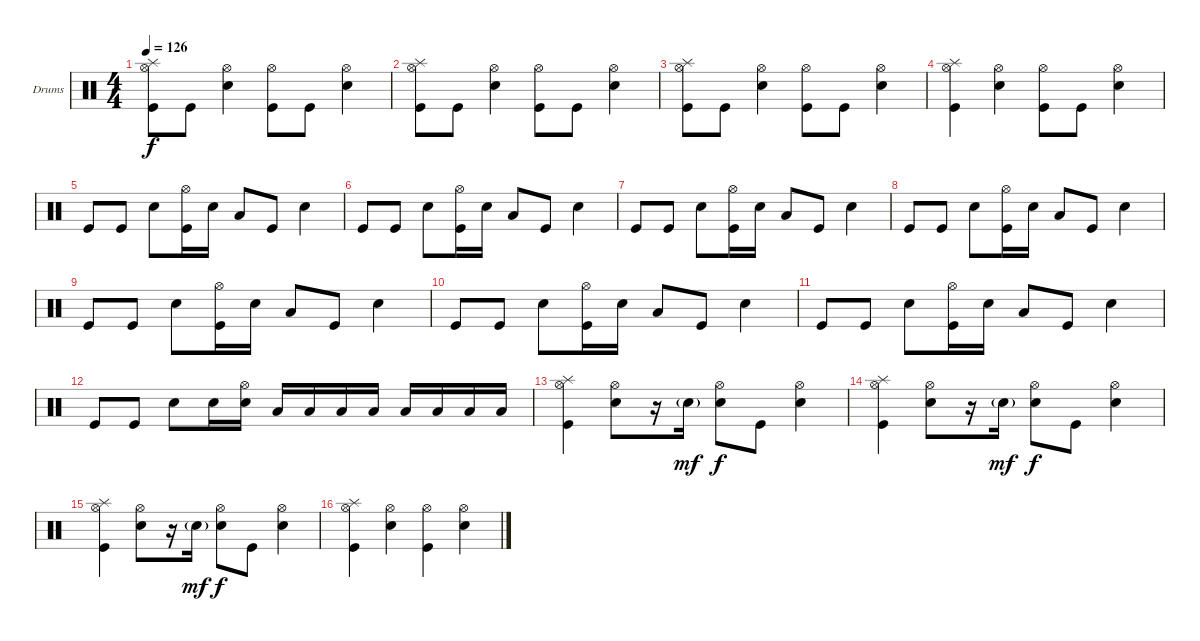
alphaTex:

\bracketExtendMode groupsimilarinstruments
\firstSystemTrackNameOrientation horizontal
\otherSystemsTrackNameOrientation horizontal
\track ("Drumkit" "Drums") {instrument percussion}
\staff {score}
\articulation defaults
\ts (4 4)
\tempo 126
\clef neutral
\ks c
("Kick (hit)" "Hi-Hat (open)" "Splash (hit)").8{dy f} "Kick (hit)".8 ("Snare (hit) 2" "Hi-Hat (open)").4 ("Kick (hit)" "Hi-Hat (open)").8 "Kick (hit)".8 ("Snare (hit) 2" "Hi-Hat (open)").4 |
("Kick (hit)" "Hi-Hat (open)" "Splash (hit)").8 "Kick (hit)".8 ("Snare (hit) 2" "Hi-Hat (open)").4 ("Kick (hit)" "Hi-Hat (open)").8 "Kick (hit)".8 ("Snare (hit) 2" "Hi-Hat (open)").4 |
("Kick (hit)" "Hi-Hat (open)" "Splash (hit)").8 "Kick (hit)".8 ("Snare (hit) 2" "Hi-Hat (open)").4 ("Kick (hit)" "Hi-Hat (open)").8 "Kick (hit)".8 ("Snare (hit) 2" "Hi-Hat (open)").4 |
("Kick (hit)" "Hi-Hat (open)" "Splash (hit)").4 ("Snare (hit) 2" "Hi-Hat (open)").4 ("Kick (hit)" "Hi-Hat (open)").8 "Kick (hit)".8 ("Snare (hit) 2" "Hi-Hat (open)").4 |
"Kick (hit)".8 "Kick (hit)".8 "Snare (hit) 2".8 ("Kick (hit)" "Hi-Hat (open)").16 "Snare (hit) 2".16 "Low Tom (hit)".8 "Kick (hit)".8 "Snare (hit) 2".4 |
"Kick (hit)".8 "Kick (hit)".8 "Snare (hit) 2".8 ("Kick (hit)" "Hi-Hat (open)").16 "Snare (hit) 2".16 "Low Tom (hit)".8 "Kick (hit)".8 "Snare (hit) 2".4 |
"Kick (hit)".8 "Kick (hit)".8 "Snare (hit) 2".8 ("Kick (hit)" "Hi-Hat (open)").16 "Snare (hit) 2".16 "Low Tom (hit)".8 "Kick (hit)".8 "Snare (hit) 2".4 |
"Kick (hit)".8 "Kick (hit)".8 "Snare (hit) 2".8 ("Kick (hit)" "Hi-Hat (open)").16 "Snare (hit) 2".16 "Low Tom (hit)".8 "Kick (hit)".8 "Snare (hit) 2".4 |
"Kick (hit)".8 "Kick (hit)".8 "Snare (hit) 2".8 ("Kick (hit)" "Hi-Hat (open)").16 "Snare (hit) 2".16 "Low Tom (hit)".8 "Kick (hit)".8 "Snare (hit) 2".4 |
"Kick (hit)".8 "Kick (hit)".8 "Snare (hit) 2".8 ("Kick (hit)" "Hi-Hat (open)").16 "Snare (hit) 2".16 "Low Tom (hit)".8 "Kick (hit)".8 "Snare (hit) 2".4 |
"Kick (hit)".8 "Kick (hit)".8 "Snare (hit) 2".8 ("Kick (hit)" "Hi-Hat (open)").16 "Snare (hit) 2".16 "Low Tom (hit)".8 "Kick (hit)".8 "Snare (hit) 2".4 |
"Kick (hit)".8 "Kick (hit)".8 "Snare (hit) 2".8 "Snare (hit) 2".16 ("Snare (hit) 2" "Hi-Hat (open)").16 "Low Tom (hit)".16 "Low Tom (hit)".16 "Low Tom (hit)".16 "Low Tom (hit)".16 "Low Tom (hit)".16 "Low Tom (hit)".16 "Low Tom (hit)".16 "Low Tom (hit)".16 |
("Kick (hit)" "Hi-Hat (open)" "Splash (hit)").4 ("Snare (hit) 2" "Hi-Hat (open)").8 r.16 "Snare (hit) 2"{g}.16{dy mf} ("Snare (hit) 2" "Hi-Hat (open)").8{dy f} "Kick (hit)".8 ("Snare (hit) 2" "Hi-Hat (open)").4 |
("Kick (hit)" "Hi-Hat (open)" "Splash (hit)").4 ("Snare (hit) 2" "Hi-Hat (open)").8 r.16 "Snare (hit) 2"{g}.16{dy mf} ("Snare (hit) 2" "Hi-Hat (open)").8{dy f} "Kick (hit)".8 ("Snare (hit) 2" "Hi-Hat (open)").4 |
("Kick (hit)" "Hi-Hat (open)" "Splash (hit)").4 ("Snare (hit) 2" "Hi-Hat (open)").8 r.16 "Snare (hit) 2"{g}.16{dy mf} ("Snare (hit) 2" "Hi-Hat (open)").8{dy f} "Kick (hit)".8 ("Snare (hit) 2" "Hi-Hat (open)").4 |
("Kick (hit)" "Hi-Hat (open)" "Splash (hit)").4 ("Snare (hit) 2" "Hi-Hat (open)").4 ("Kick (hit)" "Hi-Hat (open)").4 ("Snare (hit) 2" "Hi-Hat (open)").4
